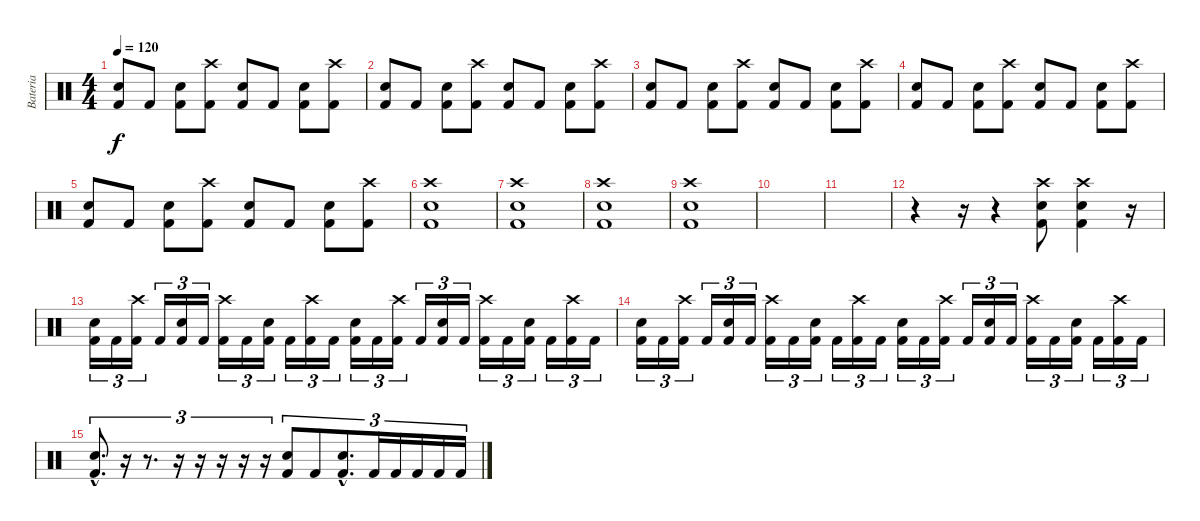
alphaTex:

\track ("Bateria" "Bateria") {instrument percussion}
\staff {score}
\articulation defaults
\ts (4 4)
\tempo 120
\clef neutral
\ks c
("Kick (hit) 2" "Electric Snare (hit)").8{dy f} "Kick (hit) 2".8 ("Kick (hit) 2" "Electric Snare (hit)").8 ("Kick (hit) 2" "Crash high (hit)").8 ("Kick (hit) 2" "Electric Snare (hit)").8 "Kick (hit) 2".8 ("Kick (hit) 2" "Electric Snare (hit)").8 ("Kick (hit) 2" "Crash high (hit)").8 |
("Kick (hit) 2" "Electric Snare (hit)").8 "Kick (hit) 2".8 ("Kick (hit) 2" "Electric Snare (hit)").8 ("Kick (hit) 2" "Crash high (hit)").8 ("Kick (hit) 2" "Electric Snare (hit)").8 "Kick (hit) 2".8 ("Kick (hit) 2" "Electric Snare (hit)").8 ("Kick (hit) 2" "Crash high (hit)").8 |
("Kick (hit) 2" "Electric Snare (hit)").8 "Kick (hit) 2".8 ("Kick (hit) 2" "Electric Snare (hit)").8 ("Kick (hit) 2" "Crash high (hit)").8 ("Kick (hit) 2" "Electric Snare (hit)").8 "Kick (hit) 2".8 ("Kick (hit) 2" "Electric Snare (hit)").8 ("Kick (hit) 2" "Crash high (hit)").8 |
("Kick (hit) 2" "Electric Snare (hit)").8 "Kick (hit) 2".8 ("Kick (hit) 2" "Electric Snare (hit)").8 ("Kick (hit) 2" "Crash high (hit)").8 ("Kick (hit) 2" "Electric Snare (hit)").8 "Kick (hit) 2".8 ("Kick (hit) 2" "Electric Snare (hit)").8 ("Kick (hit) 2" "Crash high (hit)").8 |
("Kick (hit) 2" "Electric Snare (hit)").8 "Kick (hit) 2".8 ("Kick (hit) 2" "Electric Snare (hit)").8 ("Kick (hit) 2" "Crash high (hit)").8 ("Kick (hit) 2" "Electric Snare (hit)").8 "Kick (hit) 2".8 ("Kick (hit) 2" "Electric Snare (hit)").8 ("Kick (hit) 2" "Crash high (hit)").8 |
("Crash high (hit)" "Kick (hit) 2" "Electric Snare (hit)").1 |
("Crash high (hit)" "Kick (hit) 2" "Electric Snare (hit)").1 |
("Crash high (hit)" "Kick (hit) 2" "Electric Snare (hit)").1 |
("Crash high (hit)" "Kick (hit) 2" "Electric Snare (hit)").1 |
|
|
r.4 r.16 r.4 ("Crash high (hit)" "Kick (hit) 2" "Electric Snare (hit)").8 ("Crash high (hit)" "Kick (hit) 2" "Electric Snare (hit)").4 r.16 |
("Electric Snare (hit)" "Kick (hit) 2").16{tu (3 2)} "Kick (hit) 2".16{tu (3 2)} ("Kick (hit) 2" "Crash high (hit)").16{tu (3 2)} "Kick (hit) 2".16{tu (3 2)} ("Electric Snare (hit)" "Kick (hit) 2").16{tu (3 2)} "Kick (hit) 2".16{tu (3 2)} ("Kick (hit) 2" "Crash high (hit)").16{tu (3 2)} "Kick (hit) 2".16{tu (3 2)} ("Electric Snare (hit)" "Kick (hit) 2").16{tu (3 2)} "Kick (hit) 2".16{tu (3 2)} ("Kick (hit) 2" "Crash high (hit)").16{tu (3 2)} "Kick (hit) 2".16{tu (3 2)} ("Electric Snare (hit)" "Kick (hit) 2").16{tu (3 2)} "Kick (hit) 2".16{tu (3 2)} ("Kick (hit) 2" "Crash high (hit)").16{tu (3 2)} "Kick (hit) 2".16{tu (3 2)} ("Electric Snare (hit)" "Kick (hit) 2").16{tu (3 2)} "Kick (hit) 2".16{tu (3 2)} ("Kick (hit) 2" "Crash high (hit)").16{tu (3 2)} "Kick (hit) 2".16{tu (3 2)} ("Electric Snare (hit)" "Kick (hit) 2").16{tu (3 2)} "Kick (hit) 2".16{tu (3 2)} ("Kick (hit) 2" "Crash high (hit)").16{tu (3 2)} "Kick (hit) 2".16{tu (3 2)} |
("Electric Snare (hit)" "Kick (hit) 2").16{tu (3 2)} "Kick (hit) 2".16{tu (3 2)} ("Kick (hit) 2" "Crash high (hit)").16{tu (3 2)} "Kick (hit) 2".16{tu (3 2)} ("Electric Snare (hit)" "Kick (hit) 2").16{tu (3 2)} "Kick (hit) 2".16{tu (3 2)} ("Kick (hit) 2" "Crash high (hit)").16{tu (3 2)} "Kick (hit) 2".16{tu (3 2)} ("Electric Snare (hit)" "Kick (hit) 2").16{tu (3 2)} "Kick (hit) 2".16{tu (3 2)} ("Kick (hit) 2" "Crash high (hit)").16{tu (3 2)} "Kick (hit) 2".16{tu (3 2)} ("Electric Snare (hit)" "Kick (hit) 2").16{tu (3 2)} "Kick (hit) 2".16{tu (3 2)} ("Kick (hit) 2" "Crash high (hit)").16{tu (3 2)} "Kick (hit) 2".16{tu (3 2)} ("Electric Snare (hit)" "Kick (hit) 2").16{tu (3 2)} "Kick (hit) 2".16{tu (3 2)} ("Kick (hit) 2" "Crash high (hit)").16{tu (3 2)} "Kick (hit) 2".16{tu (3 2)} ("Electric Snare (hit)" "Kick (hit) 2").16{tu (3 2)} "Kick (hit) 2".16{tu (3 2)} ("Kick (hit) 2" "Crash high (hit)").16{tu (3 2)} "Kick (hit) 2".16{tu (3 2)} |
("Kick (hit) 2"{hac} "Electric Snare (hit)"{hac}).8{d tu (3 2)} r.16{tu (3 2)} r.8{d tu (3 2)} r.16{tu (3 2)} r.16{tu (3 2)} r.16{tu (3 2)} r.16{tu (3 2)} r.16{tu (3 2)} ("Kick (hit) 2" "Electric Snare (hit)").8{tu (3 2)} "Kick (hit) 2".8{tu (3 2)} ("Kick (hit) 2"{hac} "Electric Snare (hit)"{hac}).8{d tu (3 2)} "Kick (hit) 2".16{tu (3 2)} "Kick (hit) 2".16{tu (3 2)} "Kick (hit) 2".16{tu (3 2)} "Kick (hit) 2".16{tu (3 2)} "Kick (hit) 2".16{tu (3 2)}
